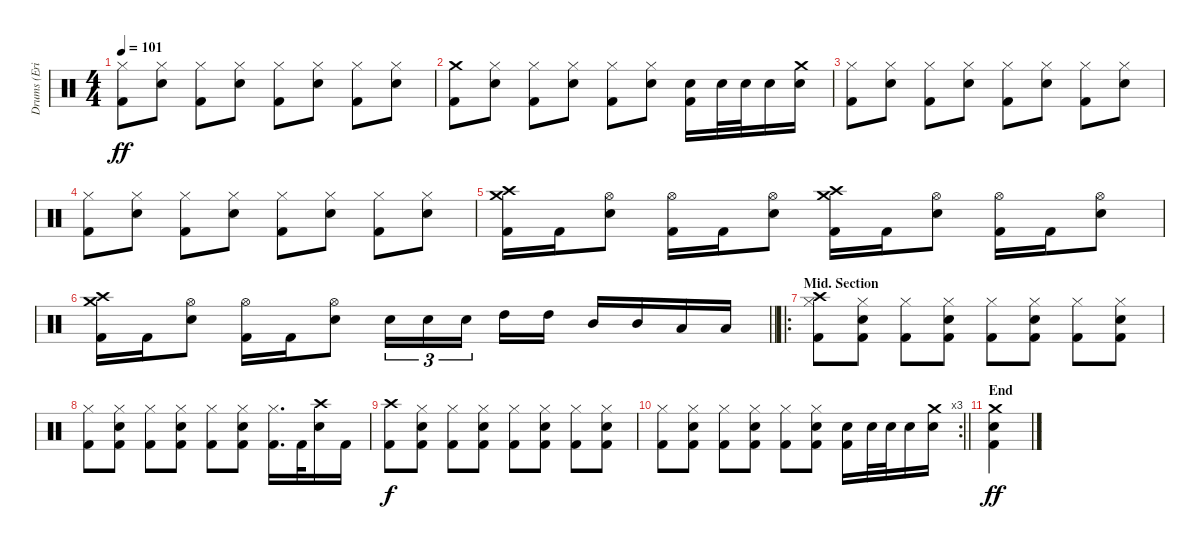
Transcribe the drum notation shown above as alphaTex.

\track ("Drums (Erik Sandin)" "Drums (Eri") {instrument percussion}
\staff {score}
\articulation defaults
\ts (4 4)
\tempo 101
\clef neutral
\ks c
("Hi-Hat (closed)" "Kick (hit) 2").8{dy ff} ("Hi-Hat (closed)" "Electric Snare (hit)").8 ("Hi-Hat (closed)" "Kick (hit) 2").8 ("Hi-Hat (closed)" "Electric Snare (hit)").8 ("Hi-Hat (closed)" "Kick (hit) 2").8 ("Hi-Hat (closed)" "Electric Snare (hit)").8 ("Hi-Hat (closed)" "Kick (hit) 2").8 ("Hi-Hat (closed)" "Electric Snare (hit)").8 |
("Crash medium (hit)" "Kick (hit) 2").8 ("Hi-Hat (closed)" "Electric Snare (hit)").8 ("Hi-Hat (closed)" "Kick (hit) 2").8 ("Hi-Hat (closed)" "Electric Snare (hit)").8 ("Hi-Hat (closed)" "Kick (hit) 2").8 ("Hi-Hat (closed)" "Electric Snare (hit)").8 ("Electric Snare (hit)" "Kick (hit) 2").16 "Electric Snare (hit)".32 "Electric Snare (hit)".32 "Electric Snare (hit)".16 ("Crash medium (hit)" "Electric Snare (hit)").16 |
("Hi-Hat (closed)" "Kick (hit) 2").8 ("Hi-Hat (closed)" "Electric Snare (hit)").8 ("Hi-Hat (closed)" "Kick (hit) 2").8 ("Hi-Hat (closed)" "Electric Snare (hit)").8 ("Hi-Hat (closed)" "Kick (hit) 2").8 ("Hi-Hat (closed)" "Electric Snare (hit)").8 ("Hi-Hat (closed)" "Kick (hit) 2").8 ("Hi-Hat (closed)" "Electric Snare (hit)").8 |
("Hi-Hat (closed)" "Kick (hit) 2").8 ("Hi-Hat (closed)" "Electric Snare (hit)").8 ("Hi-Hat (closed)" "Kick (hit) 2").8 ("Hi-Hat (closed)" "Electric Snare (hit)").8 ("Hi-Hat (closed)" "Kick (hit) 2").8 ("Hi-Hat (closed)" "Electric Snare (hit)").8 ("Hi-Hat (closed)" "Kick (hit) 2").8 ("Hi-Hat (closed)" "Electric Snare (hit)").8 |
("Crash high (hit)" "Crash medium (hit)" "Kick (hit) 2").16 "Kick (hit) 2".16 ("Hi-Hat (open)" "Electric Snare (hit)").8 ("Hi-Hat (open)" "Kick (hit) 2").16 "Kick (hit) 2".16 ("Hi-Hat (open)" "Electric Snare (hit)").8 ("Crash high (hit)" "Crash medium (hit)" "Kick (hit) 2").16 "Kick (hit) 2".16 ("Hi-Hat (open)" "Electric Snare (hit)").8 ("Hi-Hat (open)" "Kick (hit) 2").16 "Kick (hit) 2".16 ("Hi-Hat (open)" "Electric Snare (hit)").8 |
\barLineRight lightlight
("Crash high (hit)" "Crash medium (hit)" "Kick (hit) 2").16 "Kick (hit) 2".16 ("Hi-Hat (open)" "Electric Snare (hit)").8 ("Hi-Hat (open)" "Kick (hit) 2").16 "Kick (hit) 2".16 ("Hi-Hat (open)" "Electric Snare (hit)").8 "Electric Snare (hit)".16{tu (3 2)} "Electric Snare (hit)".16{tu (3 2)} "Electric Snare (hit)".16{tu (3 2) beam splitsecondary} "High Tom (hit)".16 "High Tom (hit)".16 "Mid Tom (hit)".16 "Mid Tom (hit)".16 "Low Tom (hit)".16 "Low Tom (hit)".16 |
\ro
\section ("" "Mid. Section")
("Hi-Hat (closed)" "Crash high (hit)" "Kick (hit) 2").8 ("Hi-Hat (closed)" "Electric Snare (hit)" "Kick (hit) 2").8 ("Hi-Hat (closed)" "Kick (hit) 2").8 ("Hi-Hat (closed)" "Electric Snare (hit)" "Kick (hit) 2").8 ("Hi-Hat (closed)" "Kick (hit) 2").8 ("Hi-Hat (closed)" "Electric Snare (hit)" "Kick (hit) 2").8 ("Hi-Hat (closed)" "Kick (hit) 2").8 ("Hi-Hat (closed)" "Electric Snare (hit)" "Kick (hit) 2").8 |
("Hi-Hat (closed)" "Kick (hit) 2").8 ("Hi-Hat (closed)" "Electric Snare (hit)" "Kick (hit) 2").8 ("Hi-Hat (closed)" "Kick (hit) 2").8 ("Hi-Hat (closed)" "Electric Snare (hit)" "Kick (hit) 2").8 ("Hi-Hat (closed)" "Kick (hit) 2").8 ("Hi-Hat (closed)" "Electric Snare (hit)" "Kick (hit) 2").8 ("Hi-Hat (closed)" "Kick (hit) 2").16{d} "Kick (hit) 2".32 ("Crash high (hit)" "Electric Snare (hit)").16 "Kick (hit) 2".16 |
("Crash high (hit)" "Kick (hit) 2").8{dy f} ("Hi-Hat (closed)" "Electric Snare (hit)" "Kick (hit) 2").8 ("Hi-Hat (closed)" "Kick (hit) 2").8 ("Hi-Hat (closed)" "Electric Snare (hit)" "Kick (hit) 2").8 ("Hi-Hat (closed)" "Kick (hit) 2").8 ("Hi-Hat (closed)" "Electric Snare (hit)" "Kick (hit) 2").8 ("Hi-Hat (closed)" "Kick (hit) 2").8 ("Hi-Hat (closed)" "Electric Snare (hit)" "Kick (hit) 2").8 |
\rc 3
\barLineRight lightlight
("Hi-Hat (closed)" "Kick (hit) 2").8 ("Hi-Hat (closed)" "Electric Snare (hit)" "Kick (hit) 2").8 ("Hi-Hat (closed)" "Kick (hit) 2").8 ("Hi-Hat (closed)" "Electric Snare (hit)" "Kick (hit) 2").8 ("Hi-Hat (closed)" "Kick (hit) 2").8 ("Hi-Hat (closed)" "Electric Snare (hit)" "Kick (hit) 2").8 ("Electric Snare (hit)" "Kick (hit) 2").16 "Electric Snare (hit)".32 "Electric Snare (hit)".32 "Electric Snare (hit)".16 ("Electric Snare (hit)" "Crash medium (hit)").16 |
\section ("" "End")
("Crash medium (hit)" "Electric Snare (hit)" "Kick (hit) 2").4{dy ff}
